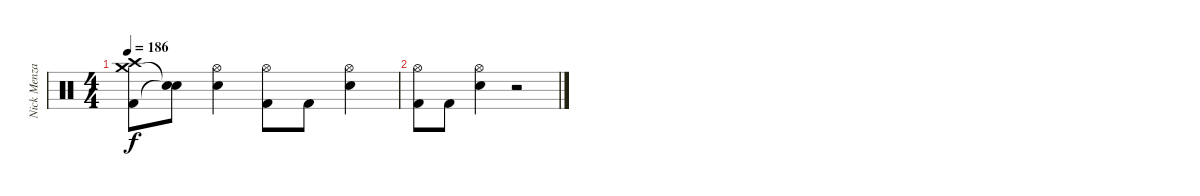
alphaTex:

\track ("Nick Menza [Drums]" "Nick Menza") {instrument percussion}
\staff {score}
\articulation defaults
\ts (4 4)
\tempo 186
\clef neutral
\ks c
("Crash medium (hit)" "Kick (hit) 2" "Crash high (hit)").8{dy f} ("Snare (hit)"{t} "Snare (hit)"{t}).8 ("Snare (hit) 2" "Hi-Hat (open)").4 ("Hi-Hat (open)" "Kick (hit) 2").8 "Kick (hit) 2".8 ("Snare (hit) 2" "Hi-Hat (open)").4 |
("Hi-Hat (open)" "Kick (hit) 2").8 "Kick (hit) 2".8 ("Hi-Hat (open)" "Snare (hit) 2").4 r.2
